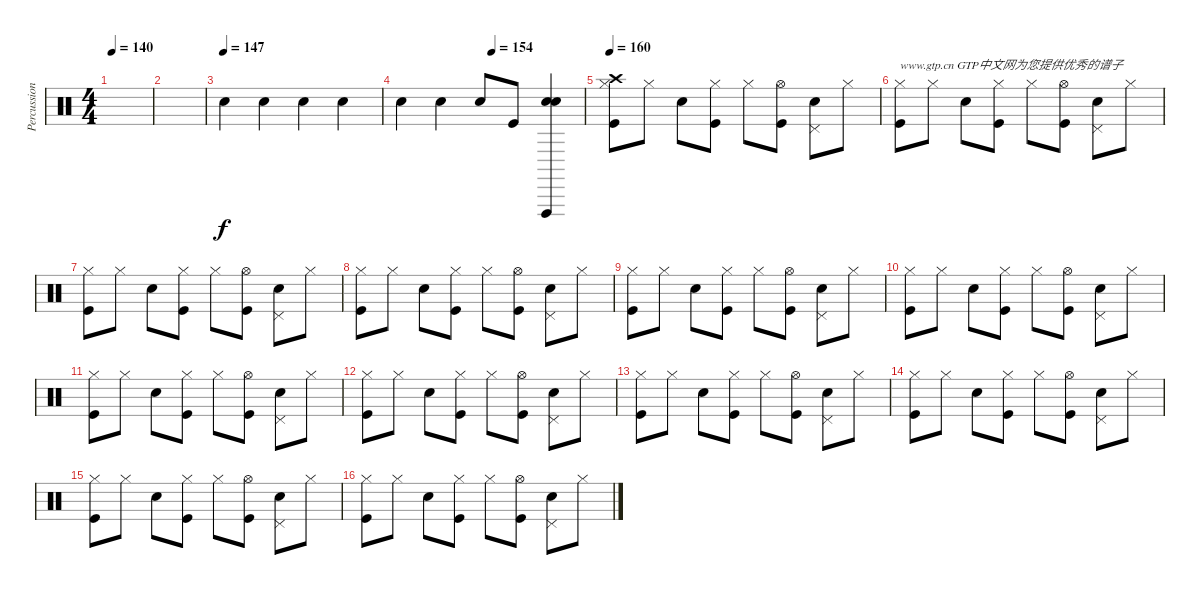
\track ("Percussion" "Percussion") {instrument percussion}
\staff {score}
\articulation defaults
\ts (4 4)
\tempo 140
\clef neutral
\ks c
|
|
\tempo (147)
"Electric Snare (hit)".4 "Electric Snare (hit)".4 "Electric Snare (hit)".4 "Electric Snare (hit)".4 |
\tempo (154 0.5)
"Electric Snare (hit)".4 "Electric Snare (hit)".4 "Electric Snare (hit)".8 "Kick (hit)".8 ("Vibraslap (hit)" "Electric Snare (hit)" "Electric Snare (hit)").4 |
\tempo 160
("Hi-Hat (closed)" "Crash high (hit)" "Kick (hit)").8 "Hi-Hat (closed)".8 "Electric Snare (hit)".8 ("Hi-Hat (closed)" "Kick (hit)").8 "Hi-Hat (closed)".8 ("Hi-Hat (open)" "Kick (hit)").8 ("Pedal Hi-Hat (hit)" "Electric Snare (hit)").8 "Hi-Hat (closed)".8 |
("Hi-Hat (closed)" "Kick (hit)").8{txt "www.gtp.cn GTP中文网为您提供优秀的谱子"} "Hi-Hat (closed)".8 "Electric Snare (hit)".8 ("Hi-Hat (closed)" "Kick (hit)").8 "Hi-Hat (closed)".8 ("Hi-Hat (open)" "Kick (hit)").8 ("Pedal Hi-Hat (hit)" "Electric Snare (hit)").8 "Hi-Hat (closed)".8 |
("Hi-Hat (closed)" "Kick (hit)").8 "Hi-Hat (closed)".8 "Electric Snare (hit)".8 ("Hi-Hat (closed)" "Kick (hit)").8 "Hi-Hat (closed)".8 ("Hi-Hat (open)" "Kick (hit)").8 ("Pedal Hi-Hat (hit)" "Electric Snare (hit)").8 "Hi-Hat (closed)".8 |
("Hi-Hat (closed)" "Kick (hit)").8 "Hi-Hat (closed)".8 "Electric Snare (hit)".8 ("Hi-Hat (closed)" "Kick (hit)").8 "Hi-Hat (closed)".8 ("Hi-Hat (open)" "Kick (hit)").8 ("Pedal Hi-Hat (hit)" "Electric Snare (hit)").8 "Hi-Hat (closed)".8 |
("Hi-Hat (closed)" "Kick (hit)").8 "Hi-Hat (closed)".8 "Electric Snare (hit)".8 ("Hi-Hat (closed)" "Kick (hit)").8 "Hi-Hat (closed)".8 ("Hi-Hat (open)" "Kick (hit)").8 ("Pedal Hi-Hat (hit)" "Electric Snare (hit)").8 "Hi-Hat (closed)".8 |
("Hi-Hat (closed)" "Kick (hit)").8 "Hi-Hat (closed)".8 "Electric Snare (hit)".8 ("Hi-Hat (closed)" "Kick (hit)").8 "Hi-Hat (closed)".8 ("Hi-Hat (open)" "Kick (hit)").8 ("Pedal Hi-Hat (hit)" "Electric Snare (hit)").8 "Hi-Hat (closed)".8 |
("Hi-Hat (closed)" "Kick (hit)").8 "Hi-Hat (closed)".8 "Electric Snare (hit)".8 ("Hi-Hat (closed)" "Kick (hit)").8 "Hi-Hat (closed)".8 ("Hi-Hat (open)" "Kick (hit)").8 ("Pedal Hi-Hat (hit)" "Electric Snare (hit)").8 "Hi-Hat (closed)".8 |
("Hi-Hat (closed)" "Kick (hit)").8 "Hi-Hat (closed)".8 "Electric Snare (hit)".8 ("Hi-Hat (closed)" "Kick (hit)").8 "Hi-Hat (closed)".8 ("Hi-Hat (open)" "Kick (hit)").8 ("Pedal Hi-Hat (hit)" "Electric Snare (hit)").8 "Hi-Hat (closed)".8 |
("Hi-Hat (closed)" "Kick (hit)").8 "Hi-Hat (closed)".8 "Electric Snare (hit)".8 ("Hi-Hat (closed)" "Kick (hit)").8 "Hi-Hat (closed)".8 ("Hi-Hat (open)" "Kick (hit)").8 ("Pedal Hi-Hat (hit)" "Electric Snare (hit)").8 "Hi-Hat (closed)".8 |
("Hi-Hat (closed)" "Kick (hit)").8 "Hi-Hat (closed)".8 "Electric Snare (hit)".8 ("Hi-Hat (closed)" "Kick (hit)").8 "Hi-Hat (closed)".8 ("Hi-Hat (open)" "Kick (hit)").8 ("Pedal Hi-Hat (hit)" "Electric Snare (hit)").8 "Hi-Hat (closed)".8 |
("Hi-Hat (closed)" "Kick (hit)").8 "Hi-Hat (closed)".8 "Electric Snare (hit)".8 ("Hi-Hat (closed)" "Kick (hit)").8 "Hi-Hat (closed)".8 ("Hi-Hat (open)" "Kick (hit)").8 ("Pedal Hi-Hat (hit)" "Electric Snare (hit)").8 "Hi-Hat (closed)".8 |
("Hi-Hat (closed)" "Kick (hit)").8 "Hi-Hat (closed)".8 "Electric Snare (hit)".8 ("Hi-Hat (closed)" "Kick (hit)").8 "Hi-Hat (closed)".8 ("Hi-Hat (open)" "Kick (hit)").8 ("Pedal Hi-Hat (hit)" "Electric Snare (hit)").8 "Hi-Hat (closed)".8
